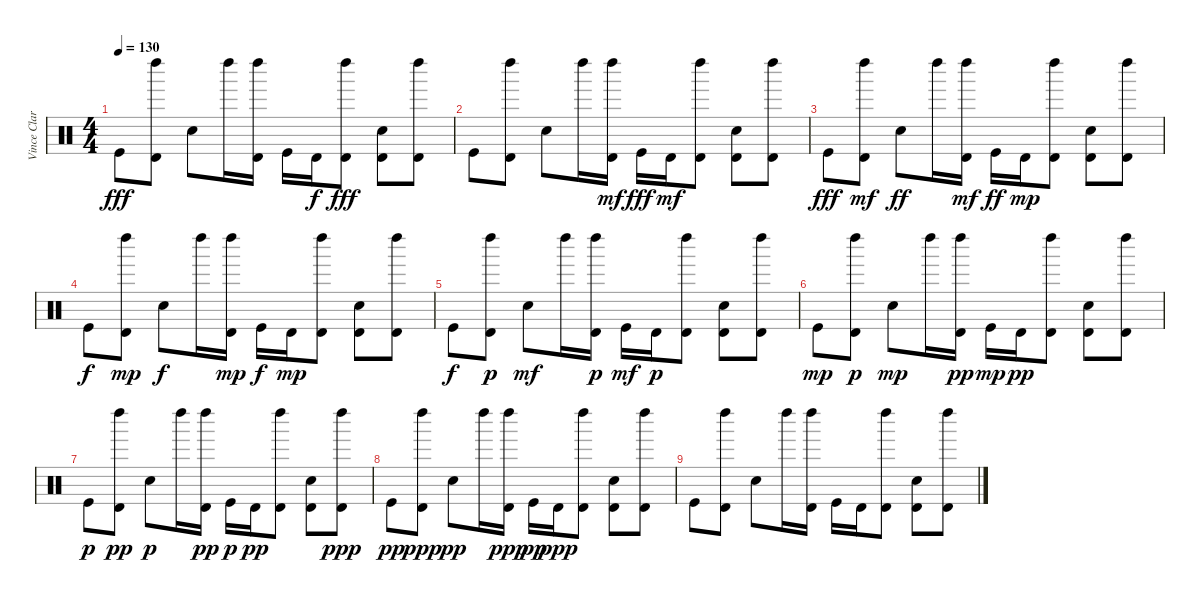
\track ("Vince Clarke" "Vince Clar") {instrument percussion}
\staff {score}
\articulation defaults
\ts (4 4)
\tempo 130
\clef neutral
\ks c "Kick (hit)".8{dy fff}
("Left Maraca (hit)" "Timbale high (hit)").8 "Snare (hit) 2".8 "Left Maraca (hit)".16 ("Left Maraca (hit)" "Timbale high (hit)").16 "Kick (hit)".16 "Timbale high (hit)".16{dy f} ("Left Maraca (hit)" "Timbale high (hit)").8{dy fff} ("Snare (hit) 2" "Timbale high (hit)").8 ("Left Maraca (hit)" "Timbale high (hit)").8 |
"Kick (hit)".8 ("Left Maraca (hit)" "Timbale high (hit)").8 "Snare (hit) 2".8 "Left Maraca (hit)".16 ("Left Maraca (hit)" "Timbale high (hit)").16{dy mf} "Kick (hit)".16{dy fff} "Timbale high (hit)".16{dy mf} ("Left Maraca (hit)" "Timbale high (hit)").8 ("Snare (hit) 2" "Timbale high (hit)").8 ("Left Maraca (hit)" "Timbale high (hit)").8 |
"Kick (hit)".8{dy fff} ("Left Maraca (hit)" "Timbale high (hit)").8{dy mf} "Snare (hit) 2".8{dy ff} "Left Maraca (hit)".16 ("Left Maraca (hit)" "Timbale high (hit)").16{dy mf} "Kick (hit)".16{dy ff} "Timbale high (hit)".16{dy mp} ("Left Maraca (hit)" "Timbale high (hit)").8 ("Snare (hit) 2" "Timbale high (hit)").8 ("Left Maraca (hit)" "Timbale high (hit)").8 |
"Kick (hit)".8{dy f} ("Left Maraca (hit)" "Timbale high (hit)").8{dy mp} "Snare (hit) 2".8{dy f} "Left Maraca (hit)".16 ("Left Maraca (hit)" "Timbale high (hit)").16{dy mp} "Kick (hit)".16{dy f} "Timbale high (hit)".16{dy mp} ("Left Maraca (hit)" "Timbale high (hit)").8 ("Snare (hit) 2" "Timbale high (hit)").8 ("Left Maraca (hit)" "Timbale high (hit)").8 |
"Kick (hit)".8{dy f} ("Left Maraca (hit)" "Timbale high (hit)").8{dy p} "Snare (hit) 2".8{dy mf} "Left Maraca (hit)".16 ("Left Maraca (hit)" "Timbale high (hit)").16{dy p} "Kick (hit)".16{dy mf} "Timbale high (hit)".16{dy p} ("Left Maraca (hit)" "Timbale high (hit)").8 ("Snare (hit) 2" "Timbale high (hit)").8 ("Left Maraca (hit)" "Timbale high (hit)").8 |
"Kick (hit)".8{dy mp} ("Left Maraca (hit)" "Timbale high (hit)").8{dy p} "Snare (hit) 2".8{dy mp} "Left Maraca (hit)".16 ("Left Maraca (hit)" "Timbale high (hit)").16{dy pp} "Kick (hit)".16{dy mp} "Timbale high (hit)".16{dy pp} ("Left Maraca (hit)" "Timbale high (hit)").8 ("Snare (hit) 2" "Timbale high (hit)").8 ("Left Maraca (hit)" "Timbale high (hit)").8 |
"Kick (hit)".8{dy p} ("Left Maraca (hit)" "Timbale high (hit)").8{dy pp} "Snare (hit) 2".8{dy p} "Left Maraca (hit)".16 ("Left Maraca (hit)" "Timbale high (hit)").16{dy pp} "Kick (hit)".16{dy p} "Timbale high (hit)".16{dy pp} ("Left Maraca (hit)" "Timbale high (hit)").8 ("Snare (hit) 2" "Timbale high (hit)").8 ("Left Maraca (hit)" "Timbale high (hit)").8{dy ppp} |
"Kick (hit)".8{dy pp} ("Left Maraca (hit)" "Timbale high (hit)").8{dy ppp} "Snare (hit) 2".8{dy pp} "Left Maraca (hit)".16 ("Left Maraca (hit)" "Timbale high (hit)").16{dy ppp} "Kick (hit)".16{dy pp} "Timbale high (hit)".16{dy ppp} ("Left Maraca (hit)" "Timbale high (hit)").8 ("Snare (hit) 2" "Timbale high (hit)").8 ("Left Maraca (hit)" "Timbale high (hit)").8 |
"Kick (hit)".8 ("Left Maraca (hit)" "Timbale high (hit)").8 "Snare (hit) 2".8 "Left Maraca (hit)".16 ("Left Maraca (hit)" "Timbale high (hit)").16 "Kick (hit)".16 "Timbale high (hit)".16 ("Left Maraca (hit)" "Timbale high (hit)").8 ("Snare (hit) 2" "Timbale high (hit)").8 ("Left Maraca (hit)" "Timbale high (hit)").8
